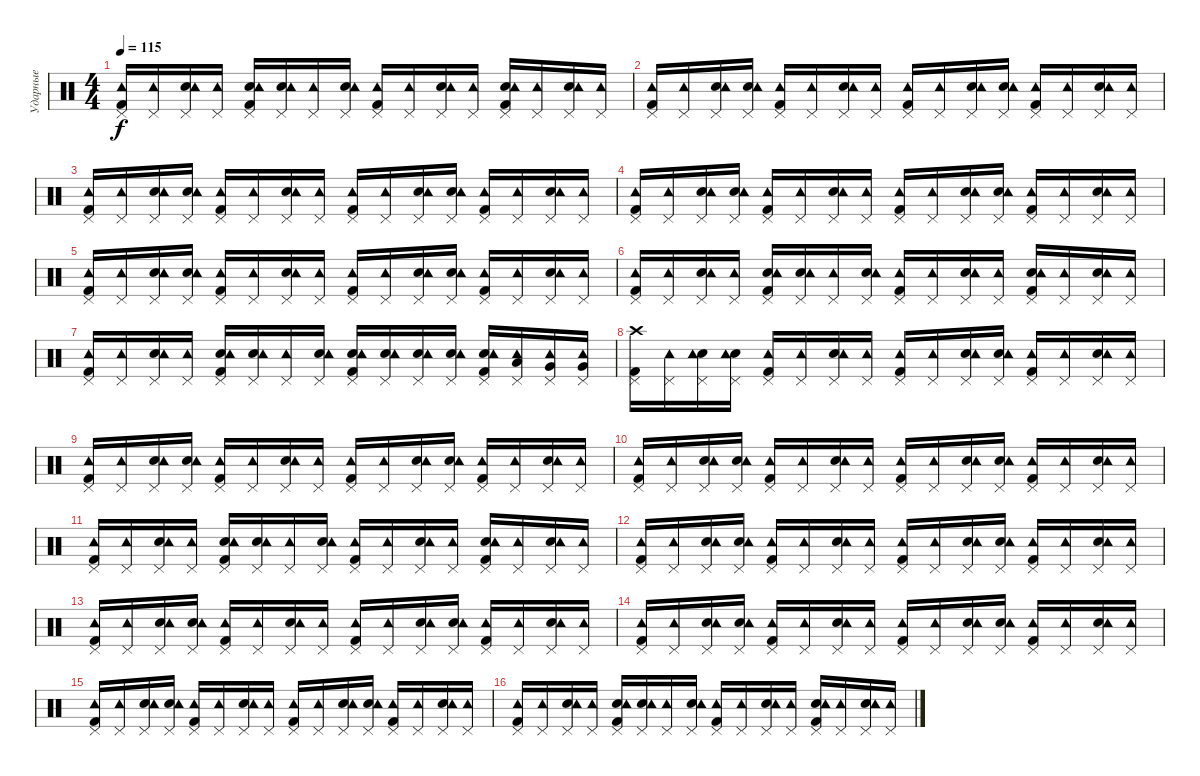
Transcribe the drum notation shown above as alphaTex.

\track ("Ударные" "Ударные") {instrument percussion}
\staff {score}
\articulation defaults
\ts (4 4)
\tempo 115
\clef neutral
\ks c
("Kick (hit) 2" "Pedal Hi-Hat (hit)" "Tambourine (hit)").16{dy f} ("Pedal Hi-Hat (hit)" "Tambourine (hit)").16 ("Pedal Hi-Hat (hit)" "Snare (hit) 2" "Tambourine (hit)").16 ("Pedal Hi-Hat (hit)" "Tambourine (hit)").16 ("Kick (hit) 2" "Pedal Hi-Hat (hit)" "Snare (hit) 2" "Tambourine (hit)").16 ("Pedal Hi-Hat (hit)" "Snare (hit) 2" "Tambourine (hit)").16 ("Pedal Hi-Hat (hit)" "Tambourine (hit)").16 ("Pedal Hi-Hat (hit)" "Snare (hit) 2" "Tambourine (hit)").16 ("Kick (hit) 2" "Pedal Hi-Hat (hit)" "Tambourine (hit)").16 ("Pedal Hi-Hat (hit)" "Tambourine (hit)").16 ("Pedal Hi-Hat (hit)" "Snare (hit) 2" "Tambourine (hit)").16 ("Pedal Hi-Hat (hit)" "Tambourine (hit)").16 ("Kick (hit) 2" "Pedal Hi-Hat (hit)" "Snare (hit) 2" "Tambourine (hit)").16 ("Pedal Hi-Hat (hit)" "Tambourine (hit)").16 ("Pedal Hi-Hat (hit)" "Snare (hit) 2" "Tambourine (hit)").16 ("Pedal Hi-Hat (hit)" "Tambourine (hit)").16 |
("Kick (hit) 2" "Pedal Hi-Hat (hit)" "Tambourine (hit)").16 ("Pedal Hi-Hat (hit)" "Tambourine (hit)").16 ("Pedal Hi-Hat (hit)" "Snare (hit) 2" "Tambourine (hit)").16 ("Pedal Hi-Hat (hit)" "Snare (hit) 2" "Tambourine (hit)").16 ("Kick (hit) 2" "Pedal Hi-Hat (hit)" "Tambourine (hit)").16 ("Pedal Hi-Hat (hit)" "Tambourine (hit)").16 ("Pedal Hi-Hat (hit)" "Snare (hit) 2" "Tambourine (hit)").16 ("Pedal Hi-Hat (hit)" "Tambourine (hit)").16 ("Kick (hit) 2" "Pedal Hi-Hat (hit)" "Tambourine (hit)").16 ("Pedal Hi-Hat (hit)" "Tambourine (hit)").16 ("Pedal Hi-Hat (hit)" "Snare (hit) 2" "Tambourine (hit)").16 ("Pedal Hi-Hat (hit)" "Snare (hit) 2" "Tambourine (hit)").16 ("Kick (hit) 2" "Pedal Hi-Hat (hit)" "Tambourine (hit)").16 ("Pedal Hi-Hat (hit)" "Tambourine (hit)").16 ("Pedal Hi-Hat (hit)" "Snare (hit) 2" "Tambourine (hit)").16 ("Pedal Hi-Hat (hit)" "Tambourine (hit)").16 |
("Kick (hit) 2" "Pedal Hi-Hat (hit)" "Tambourine (hit)").16 ("Pedal Hi-Hat (hit)" "Tambourine (hit)").16 ("Pedal Hi-Hat (hit)" "Snare (hit) 2" "Tambourine (hit)").16 ("Pedal Hi-Hat (hit)" "Snare (hit) 2" "Tambourine (hit)").16 ("Kick (hit) 2" "Pedal Hi-Hat (hit)" "Tambourine (hit)").16 ("Pedal Hi-Hat (hit)" "Tambourine (hit)").16 ("Pedal Hi-Hat (hit)" "Snare (hit) 2" "Tambourine (hit)").16 ("Pedal Hi-Hat (hit)" "Tambourine (hit)").16 ("Kick (hit) 2" "Pedal Hi-Hat (hit)" "Tambourine (hit)").16 ("Pedal Hi-Hat (hit)" "Tambourine (hit)").16 ("Pedal Hi-Hat (hit)" "Snare (hit) 2" "Tambourine (hit)").16 ("Pedal Hi-Hat (hit)" "Snare (hit) 2" "Tambourine (hit)").16 ("Kick (hit) 2" "Pedal Hi-Hat (hit)" "Tambourine (hit)").16 ("Pedal Hi-Hat (hit)" "Tambourine (hit)").16 ("Pedal Hi-Hat (hit)" "Snare (hit) 2" "Tambourine (hit)").16 ("Pedal Hi-Hat (hit)" "Tambourine (hit)").16 |
("Kick (hit) 2" "Pedal Hi-Hat (hit)" "Tambourine (hit)").16 ("Pedal Hi-Hat (hit)" "Tambourine (hit)").16 ("Pedal Hi-Hat (hit)" "Snare (hit) 2" "Tambourine (hit)").16 ("Pedal Hi-Hat (hit)" "Snare (hit) 2" "Tambourine (hit)").16 ("Kick (hit) 2" "Pedal Hi-Hat (hit)" "Tambourine (hit)").16 ("Pedal Hi-Hat (hit)" "Tambourine (hit)").16 ("Pedal Hi-Hat (hit)" "Snare (hit) 2" "Tambourine (hit)").16 ("Pedal Hi-Hat (hit)" "Tambourine (hit)").16 ("Kick (hit) 2" "Pedal Hi-Hat (hit)" "Tambourine (hit)").16 ("Pedal Hi-Hat (hit)" "Tambourine (hit)").16 ("Pedal Hi-Hat (hit)" "Snare (hit) 2" "Tambourine (hit)").16 ("Pedal Hi-Hat (hit)" "Snare (hit) 2" "Tambourine (hit)").16 ("Kick (hit) 2" "Pedal Hi-Hat (hit)" "Tambourine (hit)").16 ("Pedal Hi-Hat (hit)" "Tambourine (hit)").16 ("Pedal Hi-Hat (hit)" "Snare (hit) 2" "Tambourine (hit)").16 ("Pedal Hi-Hat (hit)" "Tambourine (hit)").16 |
("Kick (hit) 2" "Pedal Hi-Hat (hit)" "Tambourine (hit)").16 ("Pedal Hi-Hat (hit)" "Tambourine (hit)").16 ("Pedal Hi-Hat (hit)" "Snare (hit) 2" "Tambourine (hit)").16 ("Pedal Hi-Hat (hit)" "Snare (hit) 2" "Tambourine (hit)").16 ("Kick (hit) 2" "Pedal Hi-Hat (hit)" "Tambourine (hit)").16 ("Pedal Hi-Hat (hit)" "Tambourine (hit)").16 ("Pedal Hi-Hat (hit)" "Snare (hit) 2" "Tambourine (hit)").16 ("Pedal Hi-Hat (hit)" "Tambourine (hit)").16 ("Kick (hit) 2" "Pedal Hi-Hat (hit)" "Tambourine (hit)").16 ("Pedal Hi-Hat (hit)" "Tambourine (hit)").16 ("Pedal Hi-Hat (hit)" "Snare (hit) 2" "Tambourine (hit)").16 ("Pedal Hi-Hat (hit)" "Snare (hit) 2" "Tambourine (hit)").16 ("Kick (hit) 2" "Pedal Hi-Hat (hit)" "Tambourine (hit)").16 ("Pedal Hi-Hat (hit)" "Tambourine (hit)").16 ("Pedal Hi-Hat (hit)" "Snare (hit) 2" "Tambourine (hit)").16 ("Pedal Hi-Hat (hit)" "Tambourine (hit)").16 |
("Kick (hit) 2" "Pedal Hi-Hat (hit)" "Tambourine (hit)").16 ("Pedal Hi-Hat (hit)" "Tambourine (hit)").16 ("Pedal Hi-Hat (hit)" "Snare (hit) 2" "Tambourine (hit)").16 ("Pedal Hi-Hat (hit)" "Tambourine (hit)").16 ("Kick (hit) 2" "Pedal Hi-Hat (hit)" "Snare (hit) 2" "Tambourine (hit)").16 ("Pedal Hi-Hat (hit)" "Snare (hit) 2" "Tambourine (hit)").16 ("Pedal Hi-Hat (hit)" "Tambourine (hit)").16 ("Pedal Hi-Hat (hit)" "Snare (hit) 2" "Tambourine (hit)").16 ("Kick (hit) 2" "Pedal Hi-Hat (hit)" "Tambourine (hit)").16 ("Pedal Hi-Hat (hit)" "Tambourine (hit)").16 ("Pedal Hi-Hat (hit)" "Snare (hit) 2" "Tambourine (hit)").16 ("Pedal Hi-Hat (hit)" "Tambourine (hit)").16 ("Kick (hit) 2" "Pedal Hi-Hat (hit)" "Snare (hit) 2" "Tambourine (hit)").16 ("Pedal Hi-Hat (hit)" "Tambourine (hit)").16 ("Pedal Hi-Hat (hit)" "Snare (hit) 2" "Tambourine (hit)").16 ("Pedal Hi-Hat (hit)" "Tambourine (hit)").16 |
("Kick (hit) 2" "Pedal Hi-Hat (hit)" "Tambourine (hit)").16 ("Pedal Hi-Hat (hit)" "Tambourine (hit)").16 ("Pedal Hi-Hat (hit)" "Snare (hit) 2" "Tambourine (hit)").16 ("Pedal Hi-Hat (hit)" "Tambourine (hit)").16 ("Kick (hit) 2" "Pedal Hi-Hat (hit)" "Snare (hit) 2" "Tambourine (hit)").16 ("Pedal Hi-Hat (hit)" "Snare (hit) 2" "Tambourine (hit)").16 ("Pedal Hi-Hat (hit)" "Tambourine (hit)").16 ("Pedal Hi-Hat (hit)" "Snare (hit) 2" "Tambourine (hit)").16 ("Kick (hit) 2" "Pedal Hi-Hat (hit)" "Snare (hit) 2" "Tambourine (hit)").16 ("Pedal Hi-Hat (hit)" "Snare (hit) 2" "Tambourine (hit)").16 ("Pedal Hi-Hat (hit)" "Snare (hit) 2" "Tambourine (hit)").16 ("Pedal Hi-Hat (hit)" "Snare (hit) 2" "Tambourine (hit)").16 ("Kick (hit) 2" "Pedal Hi-Hat (hit)" "Snare (hit) 2" "Tambourine (hit)").16 ("Pedal Hi-Hat (hit)" "Low Tom (hit)" "Tambourine (hit)").16 ("Pedal Hi-Hat (hit)" "Very Low Tom (hit)" "Tambourine (hit)").16 ("Pedal Hi-Hat (hit)" "Very Low Tom (hit)" "Tambourine (hit)").16 |
("Kick (hit) 2" "Pedal Hi-Hat (hit)" "Crash high (hit)").16 ("Pedal Hi-Hat (hit)" "Tambourine (hit)").16 ("Pedal Hi-Hat (hit)" "Snare (hit) 2" "Tambourine (hit)").16 ("Pedal Hi-Hat (hit)" "Snare (hit) 2" "Tambourine (hit)").16 ("Kick (hit) 2" "Pedal Hi-Hat (hit)" "Tambourine (hit)").16 ("Pedal Hi-Hat (hit)" "Tambourine (hit)").16 ("Pedal Hi-Hat (hit)" "Snare (hit) 2" "Tambourine (hit)").16 ("Pedal Hi-Hat (hit)" "Tambourine (hit)").16 ("Kick (hit) 2" "Pedal Hi-Hat (hit)" "Tambourine (hit)").16 ("Pedal Hi-Hat (hit)" "Tambourine (hit)").16 ("Pedal Hi-Hat (hit)" "Snare (hit) 2" "Tambourine (hit)").16 ("Pedal Hi-Hat (hit)" "Snare (hit) 2" "Tambourine (hit)").16 ("Kick (hit) 2" "Pedal Hi-Hat (hit)" "Tambourine (hit)").16 ("Pedal Hi-Hat (hit)" "Tambourine (hit)").16 ("Pedal Hi-Hat (hit)" "Snare (hit) 2" "Tambourine (hit)").16 ("Pedal Hi-Hat (hit)" "Tambourine (hit)").16 |
("Kick (hit) 2" "Pedal Hi-Hat (hit)" "Tambourine (hit)").16 ("Pedal Hi-Hat (hit)" "Tambourine (hit)").16 ("Pedal Hi-Hat (hit)" "Snare (hit) 2" "Tambourine (hit)").16 ("Pedal Hi-Hat (hit)" "Snare (hit) 2" "Tambourine (hit)").16 ("Kick (hit) 2" "Pedal Hi-Hat (hit)" "Tambourine (hit)").16 ("Pedal Hi-Hat (hit)" "Tambourine (hit)").16 ("Pedal Hi-Hat (hit)" "Snare (hit) 2" "Tambourine (hit)").16 ("Pedal Hi-Hat (hit)" "Tambourine (hit)").16 ("Kick (hit) 2" "Pedal Hi-Hat (hit)" "Tambourine (hit)").16 ("Pedal Hi-Hat (hit)" "Tambourine (hit)").16 ("Pedal Hi-Hat (hit)" "Snare (hit) 2" "Tambourine (hit)").16 ("Pedal Hi-Hat (hit)" "Snare (hit) 2" "Tambourine (hit)").16 ("Kick (hit) 2" "Pedal Hi-Hat (hit)" "Tambourine (hit)").16 ("Pedal Hi-Hat (hit)" "Tambourine (hit)").16 ("Pedal Hi-Hat (hit)" "Snare (hit) 2" "Tambourine (hit)").16 ("Pedal Hi-Hat (hit)" "Tambourine (hit)").16 |
("Kick (hit) 2" "Pedal Hi-Hat (hit)" "Tambourine (hit)").16 ("Pedal Hi-Hat (hit)" "Tambourine (hit)").16 ("Pedal Hi-Hat (hit)" "Snare (hit) 2" "Tambourine (hit)").16 ("Pedal Hi-Hat (hit)" "Snare (hit) 2" "Tambourine (hit)").16 ("Kick (hit) 2" "Pedal Hi-Hat (hit)" "Tambourine (hit)").16 ("Pedal Hi-Hat (hit)" "Tambourine (hit)").16 ("Pedal Hi-Hat (hit)" "Snare (hit) 2" "Tambourine (hit)").16 ("Pedal Hi-Hat (hit)" "Tambourine (hit)").16 ("Kick (hit) 2" "Pedal Hi-Hat (hit)" "Tambourine (hit)").16 ("Pedal Hi-Hat (hit)" "Tambourine (hit)").16 ("Pedal Hi-Hat (hit)" "Snare (hit) 2" "Tambourine (hit)").16 ("Pedal Hi-Hat (hit)" "Snare (hit) 2" "Tambourine (hit)").16 ("Kick (hit) 2" "Pedal Hi-Hat (hit)" "Tambourine (hit)").16 ("Pedal Hi-Hat (hit)" "Tambourine (hit)").16 ("Pedal Hi-Hat (hit)" "Snare (hit) 2" "Tambourine (hit)").16 ("Pedal Hi-Hat (hit)" "Tambourine (hit)").16 |
("Kick (hit) 2" "Pedal Hi-Hat (hit)" "Tambourine (hit)").16 ("Pedal Hi-Hat (hit)" "Tambourine (hit)").16 ("Pedal Hi-Hat (hit)" "Snare (hit) 2" "Tambourine (hit)").16 ("Pedal Hi-Hat (hit)" "Tambourine (hit)").16 ("Kick (hit) 2" "Pedal Hi-Hat (hit)" "Snare (hit) 2" "Tambourine (hit)").16 ("Pedal Hi-Hat (hit)" "Snare (hit) 2" "Tambourine (hit)").16 ("Pedal Hi-Hat (hit)" "Tambourine (hit)").16 ("Pedal Hi-Hat (hit)" "Snare (hit) 2" "Tambourine (hit)").16 ("Kick (hit) 2" "Pedal Hi-Hat (hit)" "Tambourine (hit)").16 ("Pedal Hi-Hat (hit)" "Tambourine (hit)").16 ("Pedal Hi-Hat (hit)" "Snare (hit) 2" "Tambourine (hit)").16 ("Pedal Hi-Hat (hit)" "Tambourine (hit)").16 ("Kick (hit) 2" "Pedal Hi-Hat (hit)" "Snare (hit) 2" "Tambourine (hit)").16 ("Pedal Hi-Hat (hit)" "Tambourine (hit)").16 ("Pedal Hi-Hat (hit)" "Snare (hit) 2" "Tambourine (hit)").16 ("Pedal Hi-Hat (hit)" "Tambourine (hit)").16 |
("Kick (hit) 2" "Pedal Hi-Hat (hit)" "Tambourine (hit)").16 ("Pedal Hi-Hat (hit)" "Tambourine (hit)").16 ("Pedal Hi-Hat (hit)" "Snare (hit) 2" "Tambourine (hit)").16 ("Pedal Hi-Hat (hit)" "Snare (hit) 2" "Tambourine (hit)").16 ("Kick (hit) 2" "Pedal Hi-Hat (hit)" "Tambourine (hit)").16 ("Pedal Hi-Hat (hit)" "Tambourine (hit)").16 ("Pedal Hi-Hat (hit)" "Snare (hit) 2" "Tambourine (hit)").16 ("Pedal Hi-Hat (hit)" "Tambourine (hit)").16 ("Kick (hit) 2" "Pedal Hi-Hat (hit)" "Tambourine (hit)").16 ("Pedal Hi-Hat (hit)" "Tambourine (hit)").16 ("Pedal Hi-Hat (hit)" "Snare (hit) 2" "Tambourine (hit)").16 ("Pedal Hi-Hat (hit)" "Snare (hit) 2" "Tambourine (hit)").16 ("Kick (hit) 2" "Pedal Hi-Hat (hit)" "Tambourine (hit)").16 ("Pedal Hi-Hat (hit)" "Tambourine (hit)").16 ("Pedal Hi-Hat (hit)" "Snare (hit) 2" "Tambourine (hit)").16 ("Pedal Hi-Hat (hit)" "Tambourine (hit)").16 |
("Kick (hit) 2" "Pedal Hi-Hat (hit)" "Tambourine (hit)").16 ("Pedal Hi-Hat (hit)" "Tambourine (hit)").16 ("Pedal Hi-Hat (hit)" "Snare (hit) 2" "Tambourine (hit)").16 ("Pedal Hi-Hat (hit)" "Snare (hit) 2" "Tambourine (hit)").16 ("Kick (hit) 2" "Pedal Hi-Hat (hit)" "Tambourine (hit)").16 ("Pedal Hi-Hat (hit)" "Tambourine (hit)").16 ("Pedal Hi-Hat (hit)" "Snare (hit) 2" "Tambourine (hit)").16 ("Pedal Hi-Hat (hit)" "Tambourine (hit)").16 ("Kick (hit) 2" "Pedal Hi-Hat (hit)" "Tambourine (hit)").16 ("Pedal Hi-Hat (hit)" "Tambourine (hit)").16 ("Pedal Hi-Hat (hit)" "Snare (hit) 2" "Tambourine (hit)").16 ("Pedal Hi-Hat (hit)" "Snare (hit) 2" "Tambourine (hit)").16 ("Kick (hit) 2" "Pedal Hi-Hat (hit)" "Tambourine (hit)").16 ("Pedal Hi-Hat (hit)" "Tambourine (hit)").16 ("Pedal Hi-Hat (hit)" "Snare (hit) 2" "Tambourine (hit)").16 ("Pedal Hi-Hat (hit)" "Tambourine (hit)").16 |
("Kick (hit) 2" "Pedal Hi-Hat (hit)" "Tambourine (hit)").16 ("Pedal Hi-Hat (hit)" "Tambourine (hit)").16 ("Pedal Hi-Hat (hit)" "Snare (hit) 2" "Tambourine (hit)").16 ("Pedal Hi-Hat (hit)" "Snare (hit) 2" "Tambourine (hit)").16 ("Kick (hit) 2" "Pedal Hi-Hat (hit)" "Tambourine (hit)").16 ("Pedal Hi-Hat (hit)" "Tambourine (hit)").16 ("Pedal Hi-Hat (hit)" "Snare (hit) 2" "Tambourine (hit)").16 ("Pedal Hi-Hat (hit)" "Tambourine (hit)").16 ("Kick (hit) 2" "Pedal Hi-Hat (hit)" "Tambourine (hit)").16 ("Pedal Hi-Hat (hit)" "Tambourine (hit)").16 ("Pedal Hi-Hat (hit)" "Snare (hit) 2" "Tambourine (hit)").16 ("Pedal Hi-Hat (hit)" "Snare (hit) 2" "Tambourine (hit)").16 ("Kick (hit) 2" "Pedal Hi-Hat (hit)" "Tambourine (hit)").16 ("Pedal Hi-Hat (hit)" "Tambourine (hit)").16 ("Pedal Hi-Hat (hit)" "Snare (hit) 2" "Tambourine (hit)").16 ("Pedal Hi-Hat (hit)" "Tambourine (hit)").16 |
("Kick (hit) 2" "Pedal Hi-Hat (hit)" "Tambourine (hit)").16 ("Pedal Hi-Hat (hit)" "Tambourine (hit)").16 ("Pedal Hi-Hat (hit)" "Snare (hit) 2" "Tambourine (hit)").16 ("Pedal Hi-Hat (hit)" "Snare (hit) 2" "Tambourine (hit)").16 ("Kick (hit) 2" "Pedal Hi-Hat (hit)" "Tambourine (hit)").16 ("Pedal Hi-Hat (hit)" "Tambourine (hit)").16 ("Pedal Hi-Hat (hit)" "Snare (hit) 2" "Tambourine (hit)").16 ("Pedal Hi-Hat (hit)" "Tambourine (hit)").16 ("Kick (hit) 2" "Pedal Hi-Hat (hit)" "Tambourine (hit)").16 ("Pedal Hi-Hat (hit)" "Tambourine (hit)").16 ("Pedal Hi-Hat (hit)" "Snare (hit) 2" "Tambourine (hit)").16 ("Pedal Hi-Hat (hit)" "Snare (hit) 2" "Tambourine (hit)").16 ("Kick (hit) 2" "Pedal Hi-Hat (hit)" "Tambourine (hit)").16 ("Pedal Hi-Hat (hit)" "Tambourine (hit)").16 ("Pedal Hi-Hat (hit)" "Snare (hit) 2" "Tambourine (hit)").16 ("Pedal Hi-Hat (hit)" "Tambourine (hit)").16 |
("Kick (hit) 2" "Pedal Hi-Hat (hit)" "Tambourine (hit)").16 ("Pedal Hi-Hat (hit)" "Tambourine (hit)").16 ("Pedal Hi-Hat (hit)" "Snare (hit) 2" "Tambourine (hit)").16 ("Pedal Hi-Hat (hit)" "Tambourine (hit)").16 ("Kick (hit) 2" "Pedal Hi-Hat (hit)" "Snare (hit) 2" "Tambourine (hit)").16 ("Pedal Hi-Hat (hit)" "Snare (hit) 2" "Tambourine (hit)").16 ("Pedal Hi-Hat (hit)" "Tambourine (hit)").16 ("Pedal Hi-Hat (hit)" "Snare (hit) 2" "Tambourine (hit)").16 ("Kick (hit) 2" "Pedal Hi-Hat (hit)" "Tambourine (hit)").16 ("Pedal Hi-Hat (hit)" "Tambourine (hit)").16 ("Pedal Hi-Hat (hit)" "Snare (hit) 2" "Tambourine (hit)").16 ("Pedal Hi-Hat (hit)" "Tambourine (hit)").16 ("Kick (hit) 2" "Pedal Hi-Hat (hit)" "Snare (hit) 2" "Tambourine (hit)").16 ("Pedal Hi-Hat (hit)" "Tambourine (hit)").16 ("Pedal Hi-Hat (hit)" "Snare (hit) 2" "Tambourine (hit)").16 ("Pedal Hi-Hat (hit)" "Tambourine (hit)").16
